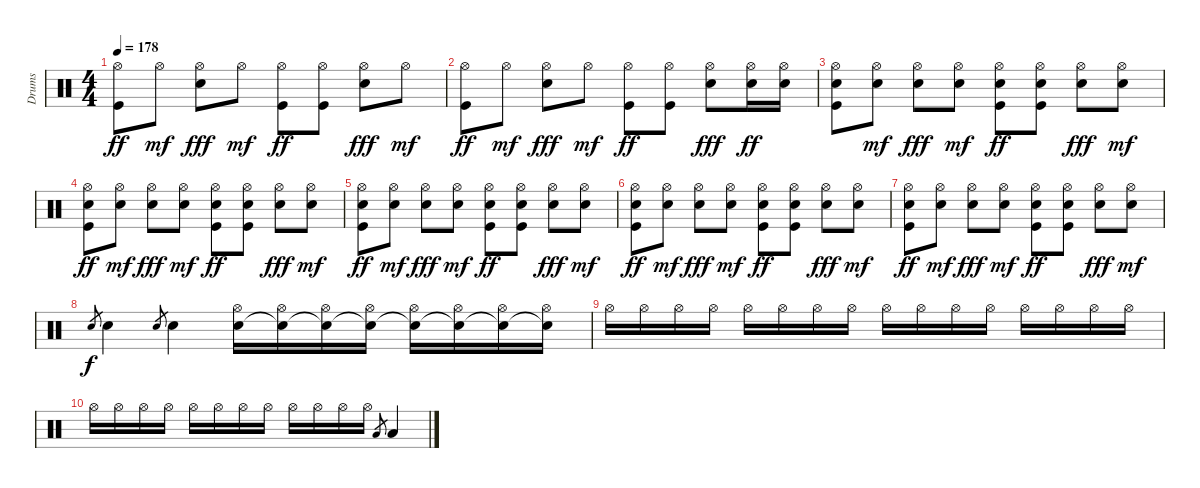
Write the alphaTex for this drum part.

\track ("Drums" "Drums") {instrument percussion}
\staff {score}
\articulation defaults
\ts (4 4)
\tempo 178
\clef neutral
\ks c
("Hi-Hat (open)" "Kick (hit)").8{dy ff} "Hi-Hat (open)".8{dy mf} ("Hi-Hat (open)" "Snare (hit) 2").8{dy fff} "Hi-Hat (open)".8{dy mf} ("Hi-Hat (open)" "Kick (hit)").8{dy ff} ("Hi-Hat (open)" "Kick (hit)").8 ("Hi-Hat (open)" "Snare (hit) 2").8{dy fff} "Hi-Hat (open)".8{dy mf} |
("Hi-Hat (open)" "Kick (hit)").8{dy ff} "Hi-Hat (open)".8{dy mf} ("Hi-Hat (open)" "Snare (hit) 2").8{dy fff} "Hi-Hat (open)".8{dy mf} ("Hi-Hat (open)" "Kick (hit)").8{dy ff} ("Hi-Hat (open)" "Kick (hit)").8 ("Hi-Hat (open)" "Snare (hit) 2").8{dy fff} ("Hi-Hat (open)" "Snare (hit) 2").16{dy ff} ("Hi-Hat (open)" "Snare (hit) 2").16 |
("Hi-Hat (open)" "Snare (hit) 2" "Kick (hit)").8 ("Hi-Hat (open)" "Snare (hit) 2").8{dy mf} ("Hi-Hat (open)" "Snare (hit) 2").8{dy fff} ("Hi-Hat (open)" "Snare (hit) 2").8{dy mf} ("Hi-Hat (open)" "Snare (hit) 2" "Kick (hit)").8{dy ff} ("Hi-Hat (open)" "Snare (hit) 2" "Kick (hit)").8 ("Hi-Hat (open)" "Snare (hit) 2").8{dy fff} ("Hi-Hat (open)" "Snare (hit) 2").8{dy mf} |
("Hi-Hat (open)" "Snare (hit) 2" "Kick (hit)").8{dy ff} ("Hi-Hat (open)" "Snare (hit) 2").8{dy mf} ("Hi-Hat (open)" "Snare (hit) 2").8{dy fff} ("Hi-Hat (open)" "Snare (hit) 2").8{dy mf} ("Hi-Hat (open)" "Snare (hit) 2" "Kick (hit)").8{dy ff} ("Hi-Hat (open)" "Snare (hit) 2" "Kick (hit)").8 ("Hi-Hat (open)" "Snare (hit) 2").8{dy fff} ("Hi-Hat (open)" "Snare (hit) 2").8{dy mf} |
("Hi-Hat (open)" "Snare (hit) 2" "Kick (hit)").8{dy ff} ("Hi-Hat (open)" "Snare (hit) 2").8{dy mf} ("Hi-Hat (open)" "Snare (hit) 2").8{dy fff} ("Hi-Hat (open)" "Snare (hit) 2").8{dy mf} ("Hi-Hat (open)" "Snare (hit) 2" "Kick (hit)").8{dy ff} ("Hi-Hat (open)" "Snare (hit) 2" "Kick (hit)").8 ("Hi-Hat (open)" "Snare (hit) 2").8{dy fff} ("Hi-Hat (open)" "Snare (hit) 2").8{dy mf} |
("Hi-Hat (open)" "Snare (hit) 2" "Kick (hit)").8{dy ff} ("Hi-Hat (open)" "Snare (hit) 2").8{dy mf} ("Hi-Hat (open)" "Snare (hit) 2").8{dy fff} ("Hi-Hat (open)" "Snare (hit) 2").8{dy mf} ("Hi-Hat (open)" "Snare (hit) 2" "Kick (hit)").8{dy ff} ("Hi-Hat (open)" "Snare (hit) 2" "Kick (hit)").8 ("Hi-Hat (open)" "Snare (hit) 2").8{dy fff} ("Hi-Hat (open)" "Snare (hit) 2").8{dy mf} |
("Hi-Hat (open)" "Snare (hit) 2" "Kick (hit)").8{dy ff} ("Hi-Hat (open)" "Snare (hit) 2").8{dy mf} ("Hi-Hat (open)" "Snare (hit) 2").8{dy fff} ("Hi-Hat (open)" "Snare (hit) 2").8{dy mf} ("Hi-Hat (open)" "Snare (hit) 2" "Kick (hit)").8{dy ff} ("Hi-Hat (open)" "Snare (hit) 2" "Kick (hit)").8 ("Hi-Hat (open)" "Snare (hit) 2").8{dy fff} ("Hi-Hat (open)" "Snare (hit) 2").8{dy mf} |
"Snare (hit) 2".8{gr dy f} "Snare (hit) 2".4 "Snare (hit) 2".8{gr} "Snare (hit) 2".4 ("Hi-Hat (open)" "Snare (hit) 2").16 ("Hi-Hat (open)" "Snare (hit) 2"{t}).16 ("Hi-Hat (open)" "Snare (hit) 2"{t}).16 ("Hi-Hat (open)" "Snare (hit) 2"{t}).16 ("Hi-Hat (open)" "Snare (hit) 2"{t}).16 ("Hi-Hat (open)" "Snare (hit) 2"{t}).16 ("Hi-Hat (open)" "Snare (hit) 2"{t}).16 ("Hi-Hat (open)" "Snare (hit) 2"{t}).16 |
"Hi-Hat (open)".16 "Hi-Hat (open)".16 "Hi-Hat (open)".16 "Hi-Hat (open)".16 "Hi-Hat (open)".16 "Hi-Hat (open)".16 "Hi-Hat (open)".16 "Hi-Hat (open)".16 "Hi-Hat (open)".16 "Hi-Hat (open)".16 "Hi-Hat (open)".16 "Hi-Hat (open)".16 "Hi-Hat (open)".16 "Hi-Hat (open)".16 "Hi-Hat (open)".16 "Hi-Hat (open)".16 |
"Hi-Hat (open)".16 "Hi-Hat (open)".16 "Hi-Hat (open)".16 "Hi-Hat (open)".16 "Hi-Hat (open)".16 "Hi-Hat (open)".16 "Hi-Hat (open)".16 "Hi-Hat (open)".16 "Hi-Hat (open)".16 "Hi-Hat (open)".16 "Hi-Hat (open)".16 "Hi-Hat (open)".16 "Low Tom (hit)".8{gr} "Low Tom (hit)".4
